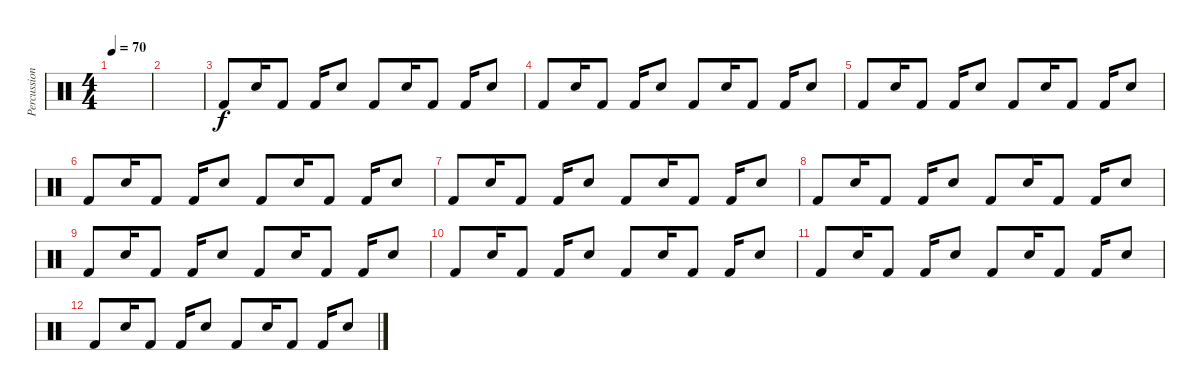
\track ("Percussion" "Percussion") {instrument percussion}
\staff {score}
\articulation defaults
\ts (4 4)
\tempo 70
\clef neutral
\ks c
|
|
"Kick (hit) 2".8 "Snare (hit) 2".16 "Kick (hit) 2".8 "Kick (hit) 2".16 "Snare (hit) 2".8 "Kick (hit) 2".8 "Snare (hit) 2".16 "Kick (hit) 2".8 "Kick (hit) 2".16 "Snare (hit) 2".8 |
"Kick (hit) 2".8 "Snare (hit) 2".16 "Kick (hit) 2".8 "Kick (hit) 2".16 "Snare (hit) 2".8 "Kick (hit) 2".8 "Snare (hit) 2".16 "Kick (hit) 2".8 "Kick (hit) 2".16 "Snare (hit) 2".8 |
"Kick (hit) 2".8 "Snare (hit) 2".16 "Kick (hit) 2".8 "Kick (hit) 2".16 "Snare (hit) 2".8 "Kick (hit) 2".8 "Snare (hit) 2".16 "Kick (hit) 2".8 "Kick (hit) 2".16 "Snare (hit) 2".8 |
"Kick (hit) 2".8 "Snare (hit) 2".16 "Kick (hit) 2".8 "Kick (hit) 2".16 "Snare (hit) 2".8 "Kick (hit) 2".8 "Snare (hit) 2".16 "Kick (hit) 2".8 "Kick (hit) 2".16 "Snare (hit) 2".8 |
"Kick (hit) 2".8 "Snare (hit) 2".16 "Kick (hit) 2".8 "Kick (hit) 2".16 "Snare (hit) 2".8 "Kick (hit) 2".8 "Snare (hit) 2".16 "Kick (hit) 2".8 "Kick (hit) 2".16 "Snare (hit) 2".8 |
"Kick (hit) 2".8 "Snare (hit) 2".16 "Kick (hit) 2".8 "Kick (hit) 2".16 "Snare (hit) 2".8 "Kick (hit) 2".8 "Snare (hit) 2".16 "Kick (hit) 2".8 "Kick (hit) 2".16 "Snare (hit) 2".8 |
"Kick (hit) 2".8 "Snare (hit) 2".16 "Kick (hit) 2".8 "Kick (hit) 2".16 "Snare (hit) 2".8 "Kick (hit) 2".8 "Snare (hit) 2".16 "Kick (hit) 2".8 "Kick (hit) 2".16 "Snare (hit) 2".8 |
"Kick (hit) 2".8 "Snare (hit) 2".16 "Kick (hit) 2".8 "Kick (hit) 2".16 "Snare (hit) 2".8 "Kick (hit) 2".8 "Snare (hit) 2".16 "Kick (hit) 2".8 "Kick (hit) 2".16 "Snare (hit) 2".8 |
"Kick (hit) 2".8 "Snare (hit) 2".16 "Kick (hit) 2".8 "Kick (hit) 2".16 "Snare (hit) 2".8 "Kick (hit) 2".8 "Snare (hit) 2".16 "Kick (hit) 2".8 "Kick (hit) 2".16 "Snare (hit) 2".8 |
"Kick (hit) 2".8 "Snare (hit) 2".16 "Kick (hit) 2".8 "Kick (hit) 2".16 "Snare (hit) 2".8 "Kick (hit) 2".8 "Snare (hit) 2".16 "Kick (hit) 2".8 "Kick (hit) 2".16 "Snare (hit) 2".8
